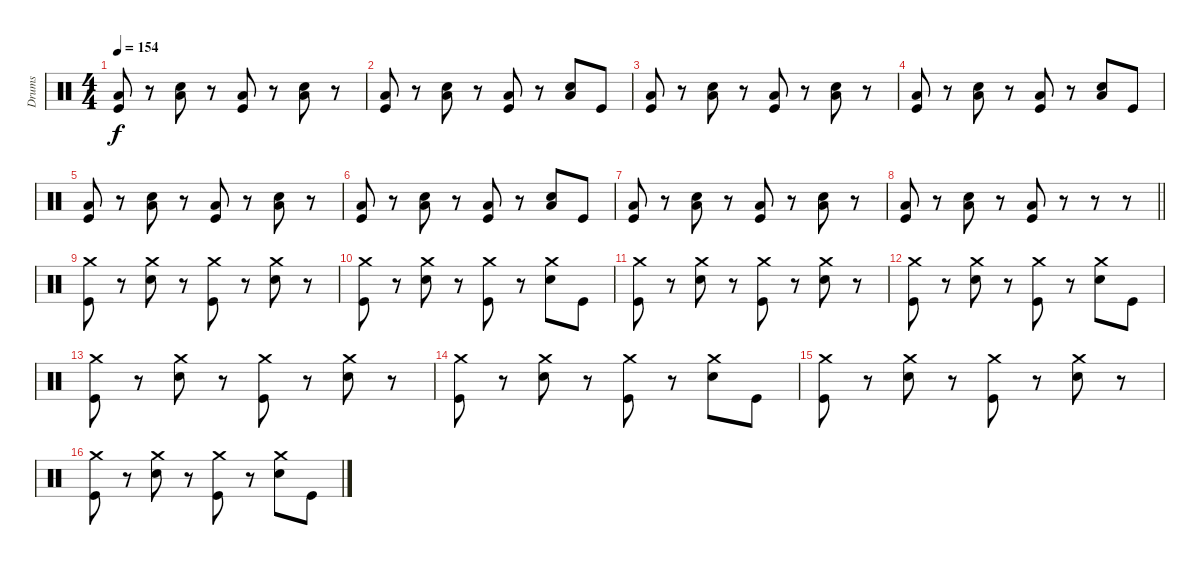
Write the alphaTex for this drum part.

\track ("Drums" "Drums") {instrument percussion}
\staff {score}
\articulation defaults
\ts (4 4)
\tempo 154
\clef neutral
\ks c
("Low Tom (hit)" "Kick (hit)").8{dy f} r.8 ("Low Tom (hit)" "Electric Snare (hit)").8 r.8 ("Low Tom (hit)" "Kick (hit)").8 r.8 ("Low Tom (hit)" "Electric Snare (hit)").8 r.8 |
("Low Tom (hit)" "Kick (hit)").8 r.8 ("Low Tom (hit)" "Electric Snare (hit)").8 r.8 ("Low Tom (hit)" "Kick (hit)").8 r.8 ("Low Tom (hit)" "Electric Snare (hit)").8 "Kick (hit)".8 |
("Low Tom (hit)" "Kick (hit)").8 r.8 ("Low Tom (hit)" "Electric Snare (hit)").8 r.8 ("Low Tom (hit)" "Kick (hit)").8 r.8 ("Low Tom (hit)" "Electric Snare (hit)").8 r.8 |
("Low Tom (hit)" "Kick (hit)").8 r.8 ("Low Tom (hit)" "Electric Snare (hit)").8 r.8 ("Low Tom (hit)" "Kick (hit)").8 r.8 ("Low Tom (hit)" "Electric Snare (hit)").8 "Kick (hit)".8 |
("Low Tom (hit)" "Kick (hit)").8 r.8 ("Low Tom (hit)" "Electric Snare (hit)").8 r.8 ("Low Tom (hit)" "Kick (hit)").8 r.8 ("Low Tom (hit)" "Electric Snare (hit)").8 r.8 |
("Low Tom (hit)" "Kick (hit)").8 r.8 ("Low Tom (hit)" "Electric Snare (hit)").8 r.8 ("Low Tom (hit)" "Kick (hit)").8 r.8 ("Low Tom (hit)" "Electric Snare (hit)").8 "Kick (hit)".8 |
("Low Tom (hit)" "Kick (hit)").8 r.8 ("Low Tom (hit)" "Electric Snare (hit)").8 r.8 ("Low Tom (hit)" "Kick (hit)").8 r.8 ("Low Tom (hit)" "Electric Snare (hit)").8 r.8 |
\barLineRight lightlight
("Low Tom (hit)" "Kick (hit)").8 r.8 ("Low Tom (hit)" "Electric Snare (hit)").8 r.8 ("Low Tom (hit)" "Kick (hit)").8 r.8 r.8 r.8 |
("Crash medium (hit)" "Kick (hit)").8 r.8 ("Crash medium (hit)" "Electric Snare (hit)").8 r.8 ("Crash medium (hit)" "Kick (hit)").8 r.8 ("Crash medium (hit)" "Electric Snare (hit)").8 r.8 |
("Crash medium (hit)" "Kick (hit)").8 r.8 ("Crash medium (hit)" "Electric Snare (hit)").8 r.8 ("Crash medium (hit)" "Kick (hit)").8 r.8 ("Crash medium (hit)" "Electric Snare (hit)").8 "Kick (hit)".8 |
("Crash medium (hit)" "Kick (hit)").8 r.8 ("Crash medium (hit)" "Electric Snare (hit)").8 r.8 ("Crash medium (hit)" "Kick (hit)").8 r.8 ("Crash medium (hit)" "Electric Snare (hit)").8 r.8 |
("Crash medium (hit)" "Kick (hit)").8 r.8 ("Crash medium (hit)" "Electric Snare (hit)").8 r.8 ("Crash medium (hit)" "Kick (hit)").8 r.8 ("Crash medium (hit)" "Electric Snare (hit)").8 "Kick (hit)".8 |
("Crash medium (hit)" "Kick (hit)").8 r.8 ("Crash medium (hit)" "Electric Snare (hit)").8 r.8 ("Crash medium (hit)" "Kick (hit)").8 r.8 ("Crash medium (hit)" "Electric Snare (hit)").8 r.8 |
("Crash medium (hit)" "Kick (hit)").8 r.8 ("Crash medium (hit)" "Electric Snare (hit)").8 r.8 ("Crash medium (hit)" "Kick (hit)").8 r.8 ("Crash medium (hit)" "Electric Snare (hit)").8 "Kick (hit)".8 |
("Crash medium (hit)" "Kick (hit)").8 r.8 ("Crash medium (hit)" "Electric Snare (hit)").8 r.8 ("Crash medium (hit)" "Kick (hit)").8 r.8 ("Crash medium (hit)" "Electric Snare (hit)").8 r.8 |
("Crash medium (hit)" "Kick (hit)").8 r.8 ("Crash medium (hit)" "Electric Snare (hit)").8 r.8 ("Crash medium (hit)" "Kick (hit)").8 r.8 ("Crash medium (hit)" "Electric Snare (hit)").8 "Kick (hit)".8
